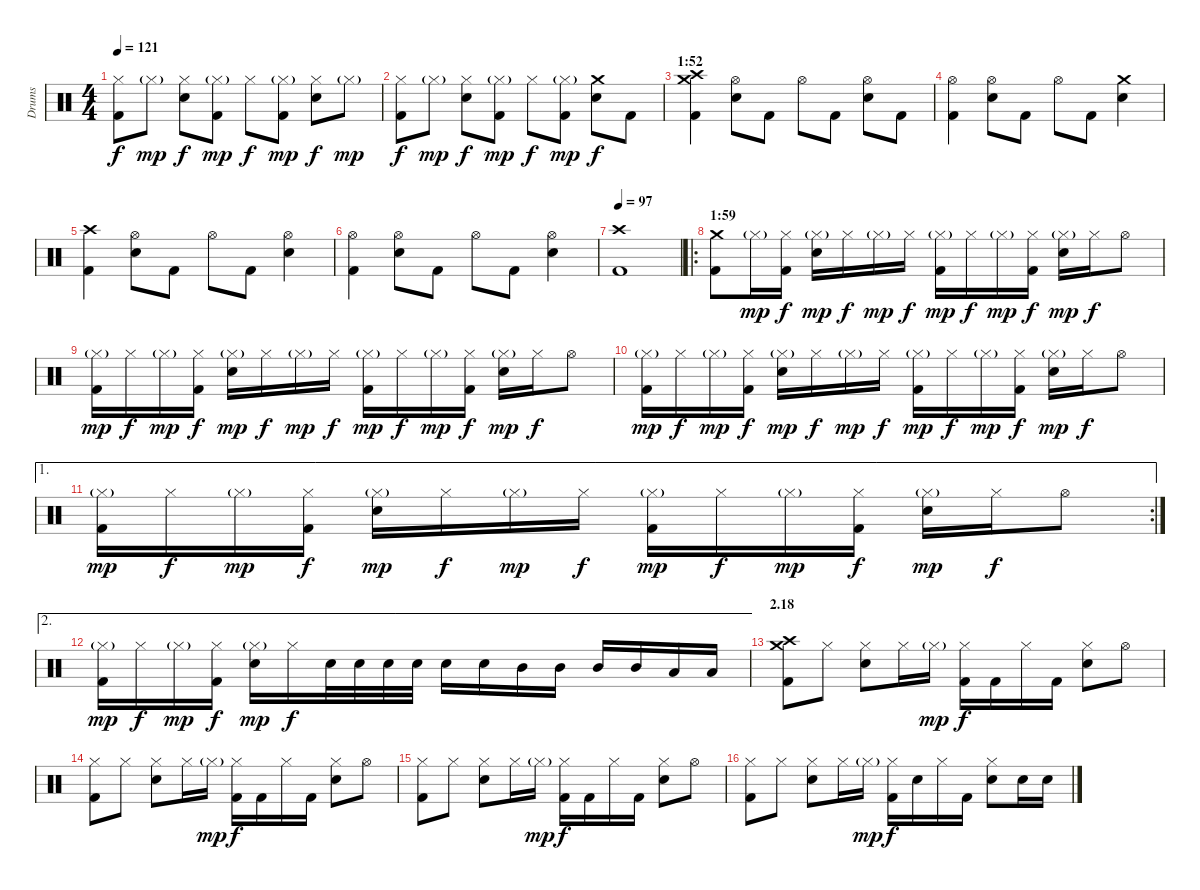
\track ("Drums" "Drums") {instrument percussion}
\staff {score}
\articulation defaults
\ts (4 4)
\tempo 121
\clef neutral
\ks c
("Hi-Hat (closed)" "Kick (hit) 2").8{dy f} "Hi-Hat (closed)"{g}.8{dy mp} ("Hi-Hat (closed)" "Snare (hit) 2").8{dy f} ("Hi-Hat (closed)"{g} "Kick (hit) 2").8{dy mp} "Hi-Hat (closed)".8{dy f} ("Hi-Hat (closed)"{g} "Kick (hit) 2").8{dy mp} ("Hi-Hat (closed)" "Snare (hit) 2").8{dy f} "Hi-Hat (closed)"{g}.8{dy mp} |
("Hi-Hat (closed)" "Kick (hit) 2").8{dy f} "Hi-Hat (closed)"{g}.8{dy mp} ("Hi-Hat (closed)" "Snare (hit) 2").8{dy f} ("Hi-Hat (closed)"{g} "Kick (hit) 2").8{dy mp} "Hi-Hat (closed)".8{dy f} ("Hi-Hat (closed)"{g} "Kick (hit) 2").8{dy mp} ("Crash medium (hit)" "Snare (hit) 2").8{dy f} "Kick (hit) 2".8 |
\section ("" "1:52")
("Crash high (hit)" "Crash medium (hit)" "Kick (hit) 2").4 ("Hi-Hat (open)" "Snare (hit) 2").8 "Kick (hit) 2".8 "Hi-Hat (open)".8 "Kick (hit) 2".8 ("Hi-Hat (open)" "Snare (hit) 2").8 "Kick (hit) 2".8 |
("Hi-Hat (open)" "Kick (hit) 2").4 ("Hi-Hat (open)" "Snare (hit) 2").8 "Kick (hit) 2".8 "Hi-Hat (open)".8 "Kick (hit) 2".8 ("Crash medium (hit)" "Snare (hit) 2").4 |
("Crash high (hit)" "Kick (hit) 2").4 ("Hi-Hat (open)" "Snare (hit) 2").8 "Kick (hit) 2".8 "Hi-Hat (open)".8 "Kick (hit) 2".8 ("Hi-Hat (open)" "Snare (hit) 2").4 |
("Hi-Hat (open)" "Kick (hit) 2").4 ("Hi-Hat (open)" "Snare (hit) 2").8 "Kick (hit) 2".8 "Hi-Hat (open)".8 "Kick (hit) 2".8 ("Hi-Hat (open)" "Snare (hit) 2").4 |
\tempo 97
("Crash high (hit)" "Kick (hit) 2").1 |
\ro
\section ("" "1:59")
("Crash medium (hit)" "Kick (hit) 2").8 "Hi-Hat (closed)"{g}.16{dy mp} ("Hi-Hat (closed)" "Kick (hit) 2").16{dy f} ("Hi-Hat (closed)"{g} "Snare (hit) 2").16{dy mp} "Hi-Hat (closed)".16{dy f} "Hi-Hat (closed)"{g}.16{dy mp} "Hi-Hat (closed)".16{dy f} ("Hi-Hat (closed)"{g} "Kick (hit) 2").16{dy mp} "Hi-Hat (closed)".16{dy f} "Hi-Hat (closed)"{g}.16{dy mp} ("Hi-Hat (closed)" "Kick (hit) 2").16{dy f} ("Hi-Hat (closed)"{g} "Snare (hit) 2").16{dy mp} "Hi-Hat (closed)".16{dy f} "Hi-Hat (open)".8 |
("Hi-Hat (closed)"{g} "Kick (hit) 2").16{dy mp} "Hi-Hat (closed)".16{dy f} "Hi-Hat (closed)"{g}.16{dy mp} ("Hi-Hat (closed)" "Kick (hit) 2").16{dy f} ("Hi-Hat (closed)"{g} "Snare (hit) 2").16{dy mp} "Hi-Hat (closed)".16{dy f} "Hi-Hat (closed)"{g}.16{dy mp} "Hi-Hat (closed)".16{dy f} ("Hi-Hat (closed)"{g} "Kick (hit) 2").16{dy mp} "Hi-Hat (closed)".16{dy f} "Hi-Hat (closed)"{g}.16{dy mp} ("Hi-Hat (closed)" "Kick (hit) 2").16{dy f} ("Hi-Hat (closed)"{g} "Snare (hit) 2").16{dy mp} "Hi-Hat (closed)".16{dy f} "Hi-Hat (open)".8 |
("Hi-Hat (closed)"{g} "Kick (hit) 2").16{dy mp} "Hi-Hat (closed)".16{dy f} "Hi-Hat (closed)"{g}.16{dy mp} ("Hi-Hat (closed)" "Kick (hit) 2").16{dy f} ("Hi-Hat (closed)"{g} "Snare (hit) 2").16{dy mp} "Hi-Hat (closed)".16{dy f} "Hi-Hat (closed)"{g}.16{dy mp} "Hi-Hat (closed)".16{dy f} ("Hi-Hat (closed)"{g} "Kick (hit) 2").16{dy mp} "Hi-Hat (closed)".16{dy f} "Hi-Hat (closed)"{g}.16{dy mp} ("Hi-Hat (closed)" "Kick (hit) 2").16{dy f} ("Hi-Hat (closed)"{g} "Snare (hit) 2").16{dy mp} "Hi-Hat (closed)".16{dy f} "Hi-Hat (open)".8 |
\ae 1
\rc 2
("Hi-Hat (closed)"{g} "Kick (hit) 2").16{dy mp} "Hi-Hat (closed)".16{dy f} "Hi-Hat (closed)"{g}.16{dy mp} ("Hi-Hat (closed)" "Kick (hit) 2").16{dy f} ("Hi-Hat (closed)"{g} "Snare (hit) 2").16{dy mp} "Hi-Hat (closed)".16{dy f} "Hi-Hat (closed)"{g}.16{dy mp} "Hi-Hat (closed)".16{dy f} ("Hi-Hat (closed)"{g} "Kick (hit) 2").16{dy mp} "Hi-Hat (closed)".16{dy f} "Hi-Hat (closed)"{g}.16{dy mp} ("Hi-Hat (closed)" "Kick (hit) 2").16{dy f} ("Hi-Hat (closed)"{g} "Snare (hit) 2").16{dy mp} "Hi-Hat (closed)".16{dy f} "Hi-Hat (open)".8 |
\ae 2
("Hi-Hat (closed)"{g} "Kick (hit) 2").16{dy mp} "Hi-Hat (closed)".16{dy f} "Hi-Hat (closed)"{g}.16{dy mp} ("Hi-Hat (closed)" "Kick (hit) 2").16{dy f} ("Hi-Hat (closed)"{g} "Snare (hit) 2").16{dy mp} "Hi-Hat (closed)".16{dy f} "Snare (hit) 2".32 "Snare (hit) 2".32 "Snare (hit) 2".32 "Snare (hit) 2".32 "Snare (hit) 2".16 "Snare (hit) 2".16 "Mid Tom (hit)".16 "Mid Tom (hit)".16 "Mid Tom (hit)".16 "Mid Tom (hit)".16 "Low Tom (hit)".16 "Low Tom (hit)".16 |
\section ("" "2.18")
("Crash high (hit)" "Crash medium (hit)" "Kick (hit) 2").8 "Hi-Hat (closed)".8 ("Hi-Hat (closed)" "Snare (hit) 2").8 "Hi-Hat (closed)".16 "Hi-Hat (closed)"{g}.16{dy mp} ("Hi-Hat (closed)" "Kick (hit) 2").16{dy f} "Kick (hit) 2".16 "Hi-Hat (closed)".16 "Kick (hit) 2".16 ("Hi-Hat (closed)" "Snare (hit) 2").8 "Hi-Hat (open)".8 |
("Hi-Hat (closed)" "Kick (hit) 2").8 "Hi-Hat (closed)".8 ("Hi-Hat (closed)" "Snare (hit) 2").8 "Hi-Hat (closed)".16 "Hi-Hat (closed)"{g}.16{dy mp} ("Hi-Hat (closed)" "Kick (hit) 2").16{dy f} "Kick (hit) 2".16 "Hi-Hat (closed)".16 "Kick (hit) 2".16 ("Hi-Hat (closed)" "Snare (hit) 2").8 "Hi-Hat (open)".8 |
("Hi-Hat (closed)" "Kick (hit) 2").8 "Hi-Hat (closed)".8 ("Hi-Hat (closed)" "Snare (hit) 2").8 "Hi-Hat (closed)".16 "Hi-Hat (closed)"{g}.16{dy mp} ("Hi-Hat (closed)" "Kick (hit) 2").16{dy f} "Kick (hit) 2".16 "Hi-Hat (closed)".16 "Kick (hit) 2".16 ("Hi-Hat (closed)" "Snare (hit) 2").8 "Hi-Hat (open)".8 |
("Hi-Hat (closed)" "Kick (hit) 2").8 "Hi-Hat (closed)".8 ("Hi-Hat (closed)" "Snare (hit) 2").8 "Hi-Hat (closed)".16 "Hi-Hat (closed)"{g}.16{dy mp} ("Hi-Hat (closed)" "Kick (hit) 2").16{dy f} "Snare (hit) 2".16 "Hi-Hat (closed)".16 "Kick (hit) 2".16 ("Hi-Hat (closed)" "Snare (hit) 2").8 "Snare (hit) 2".16 "Snare (hit) 2".16
